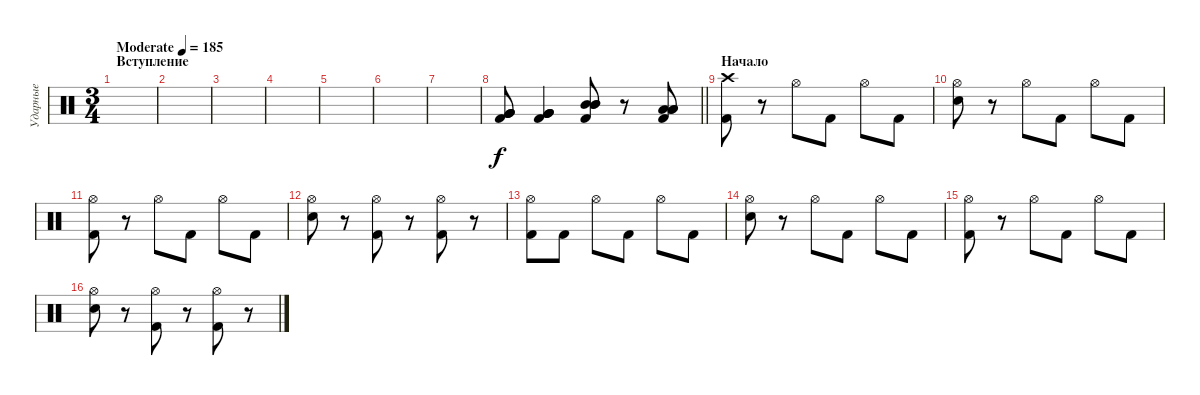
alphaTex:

\track ("Ударные" "Ударные") {instrument percussion}
\staff {score}
\articulation defaults
\ts (3 4)
\section ("" "Вступление")
\tempo (185 "Moderate")
\clef neutral
\ks c
|
|
|
|
|
|
|
\barLineRight lightlight
("Very Low Tom (hit)" "Very Low Tom (hit)" "Very Low Tom (hit)" "Kick (hit) 2").8 ("Very Low Tom (hit)" "Very Low Tom (hit)" "Very Low Tom (hit)" "Kick (hit) 2").4 ("Mid Tom (hit)" "Mid Tom (hit)" "Mid Tom (hit)" "Kick (hit) 2").8 r.8 ("Low Tom (hit)" "Low Tom (hit)" "Low Tom (hit)" "Kick (hit) 2").8 |
\section ("" "Начало")
("Crash high (hit)" "Kick (hit) 2").8 r.8 "Hi-Hat (open)".8 "Kick (hit) 2".8 "Hi-Hat (open)".8 "Kick (hit) 2".8 |
("Hi-Hat (open)" "Snare (hit) 2").8 r.8 "Hi-Hat (open)".8 "Kick (hit) 2".8 "Hi-Hat (open)".8 "Kick (hit) 2".8 |
("Hi-Hat (open)" "Kick (hit) 2").8 r.8 "Hi-Hat (open)".8 "Kick (hit) 2".8 "Hi-Hat (open)".8 "Kick (hit) 2".8 |
("Hi-Hat (open)" "Snare (hit) 2").8 r.8 ("Hi-Hat (open)" "Kick (hit) 2").8 r.8 ("Hi-Hat (open)" "Kick (hit) 2").8 r.8 |
("Hi-Hat (open)" "Kick (hit) 2").8 "Kick (hit) 2".8 "Hi-Hat (open)".8 "Kick (hit) 2".8 "Hi-Hat (open)".8 "Kick (hit) 2".8 |
("Hi-Hat (open)" "Snare (hit) 2").8 r.8 "Hi-Hat (open)".8 "Kick (hit) 2".8 "Hi-Hat (open)".8 "Kick (hit) 2".8 |
("Hi-Hat (open)" "Kick (hit) 2").8 r.8 "Hi-Hat (open)".8 "Kick (hit) 2".8 "Hi-Hat (open)".8 "Kick (hit) 2".8 |
("Hi-Hat (open)" "Snare (hit) 2").8 r.8 ("Hi-Hat (open)" "Kick (hit) 2").8 r.8 ("Hi-Hat (open)" "Kick (hit) 2").8 r.8
